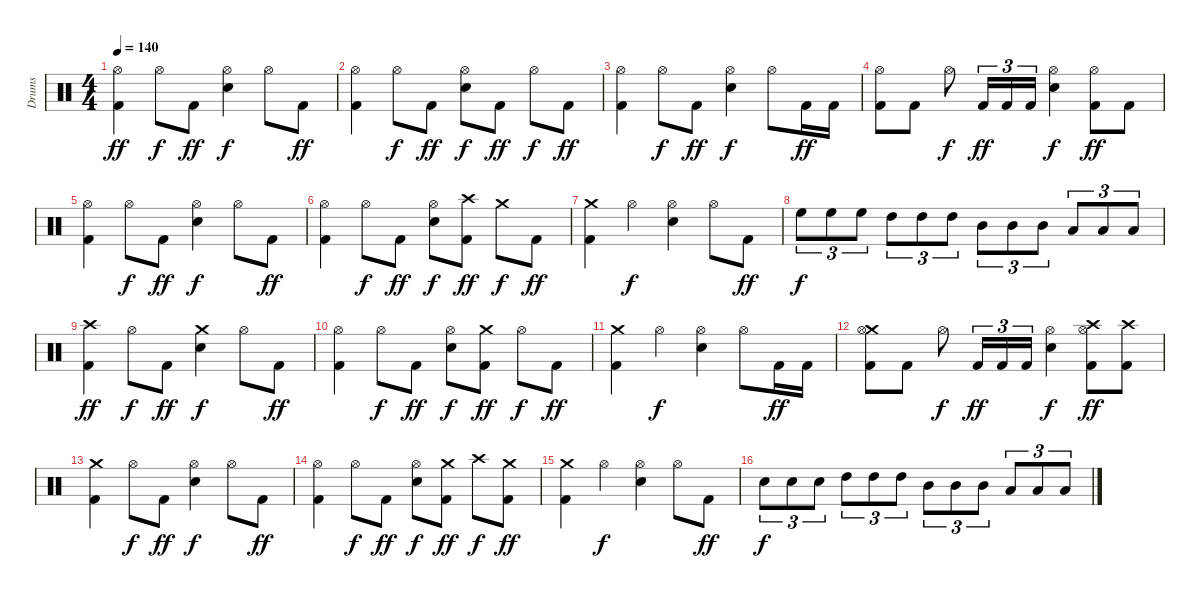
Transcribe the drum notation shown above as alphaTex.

\track ("Drums" "Drums") {instrument percussion}
\staff {score}
\articulation defaults
\ts (4 4)
\tempo 140
\clef neutral
\ks c
("Kick (hit) 2" "Hi-Hat (open)").4{dy ff} "Hi-Hat (open)".8{dy f} "Kick (hit) 2".8{dy ff} ("Snare (hit) 2" "Hi-Hat (open)").4{dy f} "Hi-Hat (open)".8 "Kick (hit) 2".8{dy ff} |
("Kick (hit) 2" "Hi-Hat (open)").4 "Hi-Hat (open)".8{dy f} "Kick (hit) 2".8{dy ff} ("Snare (hit) 2" "Hi-Hat (open)").8{dy f} "Kick (hit) 2".8{dy ff} "Hi-Hat (open)".8{dy f} "Kick (hit) 2".8{dy ff} |
("Kick (hit) 2" "Hi-Hat (open)").4 "Hi-Hat (open)".8{dy f} "Kick (hit) 2".8{dy ff} ("Snare (hit) 2" "Hi-Hat (open)").4{dy f} "Hi-Hat (open)".8 "Kick (hit) 2".16{dy ff} "Kick (hit) 2".16 |
("Kick (hit) 2" "Hi-Hat (open)").8 "Kick (hit) 2".8 "Hi-Hat (open)".8{dy f} "Kick (hit) 2".16{tu (3 2) dy ff} "Kick (hit) 2".16{tu (3 2)} "Kick (hit) 2".16{tu (3 2)} ("Snare (hit) 2" "Hi-Hat (open)").4{dy f} ("Kick (hit) 2" "Hi-Hat (open)").8{dy ff} "Kick (hit) 2".8 |
("Kick (hit) 2" "Hi-Hat (open)").4 "Hi-Hat (open)".8{dy f} "Kick (hit) 2".8{dy ff} ("Snare (hit) 2" "Hi-Hat (open)").4{dy f} "Hi-Hat (open)".8 "Kick (hit) 2".8{dy ff} |
("Kick (hit) 2" "Hi-Hat (open)").4 "Hi-Hat (open)".8{dy f} "Kick (hit) 2".8{dy ff} ("Snare (hit) 2" "Hi-Hat (open)").8{dy f} ("Crash high (hit)" "Kick (hit) 2").8{dy ff} "Crash medium (hit)".8{dy f} "Kick (hit) 2".8{dy ff} |
("Crash medium (hit)" "Kick (hit) 2").4 "Hi-Hat (open)".4{dy f} ("Snare (hit) 2" "Hi-Hat (open)").4 "Hi-Hat (open)".8 "Kick (hit) 2".8{dy ff} |
"High Floor Tom (hit)".8{tu (3 2) dy f} "High Floor Tom (hit)".8{tu (3 2)} "High Floor Tom (hit)".8{tu (3 2)} "High Tom (hit)".8{tu (3 2)} "High Tom (hit)".8{tu (3 2)} "High Tom (hit)".8{tu (3 2)} "Mid Tom (hit)".8{tu (3 2)} "Mid Tom (hit)".8{tu (3 2)} "Mid Tom (hit)".8{tu (3 2)} "Low Tom (hit)".8{tu (3 2)} "Low Tom (hit)".8{tu (3 2)} "Low Tom (hit)".8{tu (3 2)} |
("Crash high (hit)" "Kick (hit) 2").4{dy ff} "Hi-Hat (open)".8{dy f} "Kick (hit) 2".8{dy ff} ("Crash medium (hit)" "Snare (hit) 2").4{dy f} "Hi-Hat (open)".8 "Kick (hit) 2".8{dy ff} |
("Kick (hit) 2" "Hi-Hat (open)").4 "Hi-Hat (open)".8{dy f} "Kick (hit) 2".8{dy ff} ("Snare (hit) 2" "Hi-Hat (open)").8{dy f} ("Crash medium (hit)" "Kick (hit) 2").8{dy ff} "Hi-Hat (open)".8{dy f} "Kick (hit) 2".8{dy ff} |
("Crash medium (hit)" "Kick (hit) 2").4 "Hi-Hat (open)".4{dy f} ("Snare (hit) 2" "Hi-Hat (open)").4 "Hi-Hat (open)".8 "Kick (hit) 2".16{dy ff} "Kick (hit) 2".16 |
("Crash medium (hit)" "Kick (hit) 2" "Hi-Hat (open)").8 "Kick (hit) 2".8 "Hi-Hat (open)".8{dy f} "Kick (hit) 2".16{tu (3 2) dy ff} "Kick (hit) 2".16{tu (3 2)} "Kick (hit) 2".16{tu (3 2)} ("Snare (hit) 2" "Hi-Hat (open)").4{dy f} ("Crash high (hit)" "Kick (hit) 2" "Hi-Hat (open)").8{dy ff} ("Crash high (hit)" "Kick (hit) 2").8 |
("Crash medium (hit)" "Kick (hit) 2").4 "Hi-Hat (open)".8{dy f} "Kick (hit) 2".8{dy ff} ("Snare (hit) 2" "Hi-Hat (open)").4{dy f} "Hi-Hat (open)".8 "Kick (hit) 2".8{dy ff} |
("Kick (hit) 2" "Hi-Hat (open)").4 "Hi-Hat (open)".8{dy f} "Kick (hit) 2".8{dy ff} ("Snare (hit) 2" "Hi-Hat (open)").8{dy f} ("Crash medium (hit)" "Kick (hit) 2").8{dy ff} "Crash high (hit)".8{dy f} ("Crash medium (hit)" "Kick (hit) 2").8{dy ff} |
("Crash medium (hit)" "Kick (hit) 2").4 "Hi-Hat (open)".4{dy f} ("Snare (hit) 2" "Hi-Hat (open)").4 "Hi-Hat (open)".8 "Kick (hit) 2".8{dy ff} |
"Snare (hit) 2".8{tu (3 2) dy f} "Snare (hit) 2".8{tu (3 2)} "Snare (hit) 2".8{tu (3 2)} "High Tom (hit)".8{tu (3 2)} "High Tom (hit)".8{tu (3 2)} "High Tom (hit)".8{tu (3 2)} "Mid Tom (hit)".8{tu (3 2)} "Mid Tom (hit)".8{tu (3 2)} "Mid Tom (hit)".8{tu (3 2)} "Low Tom (hit)".8{tu (3 2)} "Low Tom (hit)".8{tu (3 2)} "Low Tom (hit)".8{tu (3 2)}
